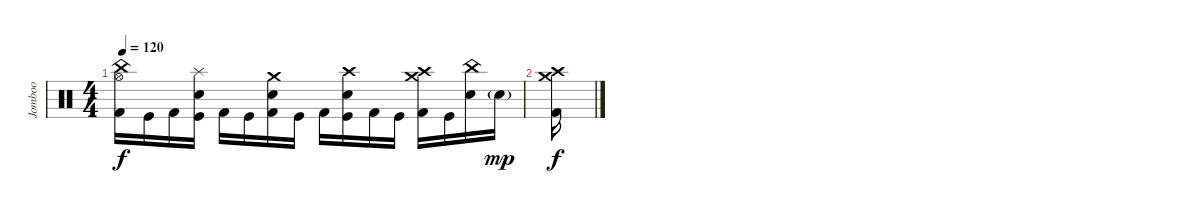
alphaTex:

\track ("Jomboo" "Jomboo") {instrument percussion}
\staff
\articulation defaults
\ts (4 4)
\tempo 120
\clef neutral
\ks c
("Hi-Hat (open)" "China (hit)" "Kick (hit) 2").16{dy f} "Kick (hit)".16 "Kick (hit) 2".16 ("Splash (hit)" "Electric Snare (hit)" "Kick (hit)").16 "Kick (hit) 2".16 "Kick (hit)".16 ("Crash medium (hit)" "Electric Snare (hit)" "Kick (hit) 2").16 "Kick (hit)".16 "Kick (hit) 2".16 ("Crash high (hit)" "Electric Snare (hit)" "Kick (hit)").16 "Kick (hit) 2".16 "Kick (hit)".16 ("Crash medium (hit)" "Crash high (hit)" "Kick (hit) 2").16 "Kick (hit)".16 ("China (hit)" "Electric Snare (hit)").16 "Electric Snare (hit)"{g}.16{dy mp} |
("Kick (hit) 2" "Crash medium (hit)" "Crash high (hit)").16{dy f}
